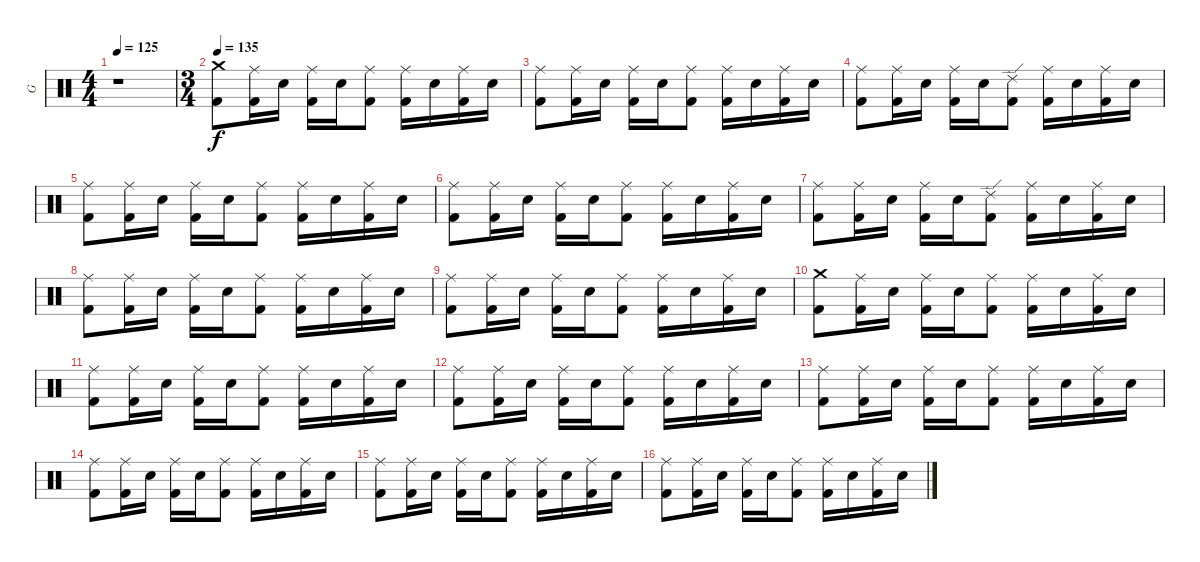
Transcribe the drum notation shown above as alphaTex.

\track ("G" "G") {instrument percussion}
\staff {score}
\articulation defaults
\ts (4 4)
\tempo 125
\clef neutral
\ks c
r.1{dy f} |
\ts (3 4)
\tempo 135
("Crash medium (hit)" "Kick (hit) 2").8 ("Ride (middle)" "Kick (hit) 2").16 "Electric Snare (hit)".16 ("Ride (middle)" "Kick (hit) 2").16 "Electric Snare (hit)".16 ("Ride (middle)" "Kick (hit) 2").8 ("Ride (middle)" "Kick (hit) 2").16 "Electric Snare (hit)".16 ("Ride (middle)" "Kick (hit) 2").16 "Electric Snare (hit)".16 |
("Ride (middle)" "Kick (hit) 2").8 ("Ride (middle)" "Kick (hit) 2").16 "Electric Snare (hit)".16 ("Ride (middle)" "Kick (hit) 2").16 "Electric Snare (hit)".16 ("Ride (middle)" "Kick (hit) 2").8 ("Ride (middle)" "Kick (hit) 2").16 "Electric Snare (hit)".16 ("Ride (middle)" "Kick (hit) 2").16 "Electric Snare (hit)".16 |
("Ride (middle)" "Kick (hit) 2").8 ("Ride (middle)" "Kick (hit) 2").16 "Electric Snare (hit)".16 ("Ride (middle)" "Kick (hit) 2").16 "Electric Snare (hit)".16 ("Ride (edge) 2" "Kick (hit) 2").8 ("Ride (middle)" "Kick (hit) 2").16 "Electric Snare (hit)".16 ("Ride (middle)" "Kick (hit) 2").16 "Electric Snare (hit)".16 |
("Ride (middle)" "Kick (hit) 2").8 ("Ride (middle)" "Kick (hit) 2").16 "Electric Snare (hit)".16 ("Ride (middle)" "Kick (hit) 2").16 "Electric Snare (hit)".16 ("Ride (middle)" "Kick (hit) 2").8 ("Ride (middle)" "Kick (hit) 2").16 "Electric Snare (hit)".16 ("Ride (middle)" "Kick (hit) 2").16 "Electric Snare (hit)".16 |
("Ride (middle)" "Kick (hit) 2").8 ("Ride (middle)" "Kick (hit) 2").16 "Electric Snare (hit)".16 ("Ride (middle)" "Kick (hit) 2").16 "Electric Snare (hit)".16 ("Ride (middle)" "Kick (hit) 2").8 ("Ride (middle)" "Kick (hit) 2").16 "Electric Snare (hit)".16 ("Ride (middle)" "Kick (hit) 2").16 "Electric Snare (hit)".16 |
("Ride (middle)" "Kick (hit) 2").8 ("Ride (middle)" "Kick (hit) 2").16 "Electric Snare (hit)".16 ("Ride (middle)" "Kick (hit) 2").16 "Electric Snare (hit)".16 ("Ride (edge) 2" "Kick (hit) 2").8 ("Ride (middle)" "Kick (hit) 2").16 "Electric Snare (hit)".16 ("Ride (middle)" "Kick (hit) 2").16 "Electric Snare (hit)".16 |
("Ride (middle)" "Kick (hit) 2").8 ("Ride (middle)" "Kick (hit) 2").16 "Electric Snare (hit)".16 ("Ride (middle)" "Kick (hit) 2").16 "Electric Snare (hit)".16 ("Ride (middle)" "Kick (hit) 2").8 ("Ride (middle)" "Kick (hit) 2").16 "Electric Snare (hit)".16 ("Ride (middle)" "Kick (hit) 2").16 "Electric Snare (hit)".16 |
("Ride (middle)" "Kick (hit) 2").8 ("Ride (middle)" "Kick (hit) 2").16 "Electric Snare (hit)".16 ("Ride (middle)" "Kick (hit) 2").16 "Electric Snare (hit)".16 ("Ride (middle)" "Kick (hit) 2").8 ("Ride (middle)" "Kick (hit) 2").16 "Electric Snare (hit)".16 ("Ride (middle)" "Kick (hit) 2").16 "Electric Snare (hit)".16 |
("Crash medium (hit)" "Kick (hit) 2").8 ("Ride (middle)" "Kick (hit) 2").16 "Electric Snare (hit)".16 ("Ride (middle)" "Kick (hit) 2").16 "Electric Snare (hit)".16 ("Ride (middle)" "Kick (hit) 2").8 ("Ride (middle)" "Kick (hit) 2").16 "Electric Snare (hit)".16 ("Ride (middle)" "Kick (hit) 2").16 "Electric Snare (hit)".16 |
("Ride (middle)" "Kick (hit) 2").8 ("Ride (middle)" "Kick (hit) 2").16 "Electric Snare (hit)".16 ("Ride (middle)" "Kick (hit) 2").16 "Electric Snare (hit)".16 ("Ride (middle)" "Kick (hit) 2").8 ("Ride (middle)" "Kick (hit) 2").16 "Electric Snare (hit)".16 ("Ride (middle)" "Kick (hit) 2").16 "Electric Snare (hit)".16 |
("Ride (middle)" "Kick (hit) 2").8 ("Ride (middle)" "Kick (hit) 2").16 "Electric Snare (hit)".16 ("Ride (middle)" "Kick (hit) 2").16 "Electric Snare (hit)".16 ("Ride (middle)" "Kick (hit) 2").8 ("Ride (middle)" "Kick (hit) 2").16 "Electric Snare (hit)".16 ("Ride (middle)" "Kick (hit) 2").16 "Electric Snare (hit)".16 |
("Ride (middle)" "Kick (hit) 2").8 ("Ride (middle)" "Kick (hit) 2").16 "Electric Snare (hit)".16 ("Ride (middle)" "Kick (hit) 2").16 "Electric Snare (hit)".16 ("Ride (middle)" "Kick (hit) 2").8 ("Ride (middle)" "Kick (hit) 2").16 "Electric Snare (hit)".16 ("Ride (middle)" "Kick (hit) 2").16 "Electric Snare (hit)".16 |
("Ride (middle)" "Kick (hit) 2").8 ("Ride (middle)" "Kick (hit) 2").16 "Electric Snare (hit)".16 ("Ride (middle)" "Kick (hit) 2").16 "Electric Snare (hit)".16 ("Ride (middle)" "Kick (hit) 2").8 ("Ride (middle)" "Kick (hit) 2").16 "Electric Snare (hit)".16 ("Ride (middle)" "Kick (hit) 2").16 "Electric Snare (hit)".16 |
("Ride (middle)" "Kick (hit) 2").8 ("Ride (middle)" "Kick (hit) 2").16 "Electric Snare (hit)".16 ("Ride (middle)" "Kick (hit) 2").16 "Electric Snare (hit)".16 ("Ride (middle)" "Kick (hit) 2").8 ("Ride (middle)" "Kick (hit) 2").16 "Electric Snare (hit)".16 ("Ride (middle)" "Kick (hit) 2").16 "Electric Snare (hit)".16 |
("Ride (middle)" "Kick (hit) 2").8 ("Ride (middle)" "Kick (hit) 2").16 "Electric Snare (hit)".16 ("Ride (middle)" "Kick (hit) 2").16 "Electric Snare (hit)".16 ("Ride (middle)" "Kick (hit) 2").8 ("Ride (middle)" "Kick (hit) 2").16 "Electric Snare (hit)".16 ("Ride (middle)" "Kick (hit) 2").16 "Electric Snare (hit)".16
